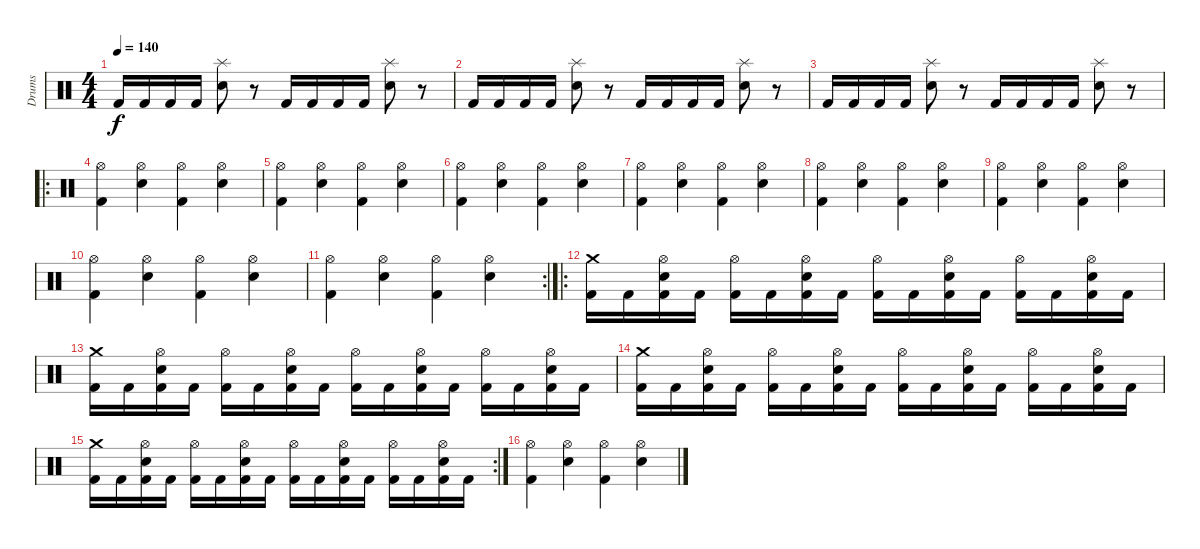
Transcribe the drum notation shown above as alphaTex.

\track ("Drums" "Drums") {instrument percussion}
\staff {score}
\articulation defaults
\ts (4 4)
\tempo 140
\clef neutral
\ks c "Kick (hit) 2".16{dy f} "Kick (hit) 2".16 "Kick (hit) 2".16 "Kick (hit) 2".16
("Splash (hit)" "Electric Snare (hit)").8 r.8 "Kick (hit) 2".16 "Kick (hit) 2".16 "Kick (hit) 2".16 "Kick (hit) 2".16 ("Splash (hit)" "Electric Snare (hit)").8 r.8 |
"Kick (hit) 2".16 "Kick (hit) 2".16 "Kick (hit) 2".16 "Kick (hit) 2".16 ("Splash (hit)" "Electric Snare (hit)").8 r.8 "Kick (hit) 2".16 "Kick (hit) 2".16 "Kick (hit) 2".16 "Kick (hit) 2".16 ("Splash (hit)" "Electric Snare (hit)").8 r.8 |
"Kick (hit) 2".16 "Kick (hit) 2".16 "Kick (hit) 2".16 "Kick (hit) 2".16 ("Splash (hit)" "Electric Snare (hit)").8 r.8 "Kick (hit) 2".16 "Kick (hit) 2".16 "Kick (hit) 2".16 "Kick (hit) 2".16 ("Splash (hit)" "Electric Snare (hit)").8 r.8 |
\ro
("Hi-Hat (open)" "Kick (hit) 2").4 ("Hi-Hat (open)" "Electric Snare (hit)").4 ("Hi-Hat (open)" "Kick (hit) 2").4 ("Hi-Hat (open)" "Electric Snare (hit)").4 |
("Hi-Hat (open)" "Kick (hit) 2").4 ("Hi-Hat (open)" "Electric Snare (hit)").4 ("Hi-Hat (open)" "Kick (hit) 2").4 ("Hi-Hat (open)" "Electric Snare (hit)").4 |
("Hi-Hat (open)" "Kick (hit) 2").4 ("Hi-Hat (open)" "Electric Snare (hit)").4 ("Hi-Hat (open)" "Kick (hit) 2").4 ("Hi-Hat (open)" "Electric Snare (hit)").4 |
("Hi-Hat (open)" "Kick (hit) 2").4 ("Hi-Hat (open)" "Electric Snare (hit)").4 ("Hi-Hat (open)" "Kick (hit) 2").4 ("Hi-Hat (open)" "Electric Snare (hit)").4 |
("Hi-Hat (open)" "Kick (hit) 2").4 ("Hi-Hat (open)" "Electric Snare (hit)").4 ("Hi-Hat (open)" "Kick (hit) 2").4 ("Hi-Hat (open)" "Electric Snare (hit)").4 |
("Hi-Hat (open)" "Kick (hit) 2").4 ("Hi-Hat (open)" "Electric Snare (hit)").4 ("Hi-Hat (open)" "Kick (hit) 2").4 ("Hi-Hat (open)" "Electric Snare (hit)").4 |
("Hi-Hat (open)" "Kick (hit) 2").4 ("Hi-Hat (open)" "Electric Snare (hit)").4 ("Hi-Hat (open)" "Kick (hit) 2").4 ("Hi-Hat (open)" "Electric Snare (hit)").4 |
\rc 2
("Hi-Hat (open)" "Kick (hit) 2").4 ("Hi-Hat (open)" "Electric Snare (hit)").4 ("Hi-Hat (open)" "Kick (hit) 2").4 ("Hi-Hat (open)" "Electric Snare (hit)").4 |
\ro
("Crash medium (hit)" "Kick (hit) 2").16 "Kick (hit) 2".16 ("Hi-Hat (open)" "Electric Snare (hit)" "Kick (hit) 2").16 "Kick (hit) 2".16 ("Hi-Hat (open)" "Kick (hit) 2").16 "Kick (hit) 2".16 ("Hi-Hat (open)" "Electric Snare (hit)" "Kick (hit) 2").16 "Kick (hit) 2".16 ("Hi-Hat (open)" "Kick (hit) 2").16 "Kick (hit) 2".16 ("Hi-Hat (open)" "Electric Snare (hit)" "Kick (hit) 2").16 "Kick (hit) 2".16 ("Hi-Hat (open)" "Kick (hit) 2").16 "Kick (hit) 2".16 ("Hi-Hat (open)" "Electric Snare (hit)" "Kick (hit) 2").16 "Kick (hit) 2".16 |
("Crash medium (hit)" "Kick (hit) 2").16 "Kick (hit) 2".16 ("Hi-Hat (open)" "Electric Snare (hit)" "Kick (hit) 2").16 "Kick (hit) 2".16 ("Hi-Hat (open)" "Kick (hit) 2").16 "Kick (hit) 2".16 ("Hi-Hat (open)" "Electric Snare (hit)" "Kick (hit) 2").16 "Kick (hit) 2".16 ("Hi-Hat (open)" "Kick (hit) 2").16 "Kick (hit) 2".16 ("Hi-Hat (open)" "Electric Snare (hit)" "Kick (hit) 2").16 "Kick (hit) 2".16 ("Hi-Hat (open)" "Kick (hit) 2").16 "Kick (hit) 2".16 ("Hi-Hat (open)" "Electric Snare (hit)" "Kick (hit) 2").16 "Kick (hit) 2".16 |
("Crash medium (hit)" "Kick (hit) 2").16 "Kick (hit) 2".16 ("Hi-Hat (open)" "Electric Snare (hit)" "Kick (hit) 2").16 "Kick (hit) 2".16 ("Hi-Hat (open)" "Kick (hit) 2").16 "Kick (hit) 2".16 ("Hi-Hat (open)" "Electric Snare (hit)" "Kick (hit) 2").16 "Kick (hit) 2".16 ("Hi-Hat (open)" "Kick (hit) 2").16 "Kick (hit) 2".16 ("Hi-Hat (open)" "Electric Snare (hit)" "Kick (hit) 2").16 "Kick (hit) 2".16 ("Hi-Hat (open)" "Kick (hit) 2").16 "Kick (hit) 2".16 ("Hi-Hat (open)" "Electric Snare (hit)" "Kick (hit) 2").16 "Kick (hit) 2".16 |
\rc 2
("Crash medium (hit)" "Kick (hit) 2").16 "Kick (hit) 2".16 ("Hi-Hat (open)" "Electric Snare (hit)" "Kick (hit) 2").16 "Kick (hit) 2".16 ("Hi-Hat (open)" "Kick (hit) 2").16 "Kick (hit) 2".16 ("Hi-Hat (open)" "Electric Snare (hit)" "Kick (hit) 2").16 "Kick (hit) 2".16 ("Hi-Hat (open)" "Kick (hit) 2").16 "Kick (hit) 2".16 ("Hi-Hat (open)" "Electric Snare (hit)" "Kick (hit) 2").16 "Kick (hit) 2".16 ("Hi-Hat (open)" "Kick (hit) 2").16 "Kick (hit) 2".16 ("Hi-Hat (open)" "Electric Snare (hit)" "Kick (hit) 2").16 "Kick (hit) 2".16 |
("Hi-Hat (open)" "Kick (hit) 2").4 ("Hi-Hat (open)" "Electric Snare (hit)").4 ("Hi-Hat (open)" "Kick (hit) 2").4 ("Hi-Hat (open)" "Electric Snare (hit)").4
